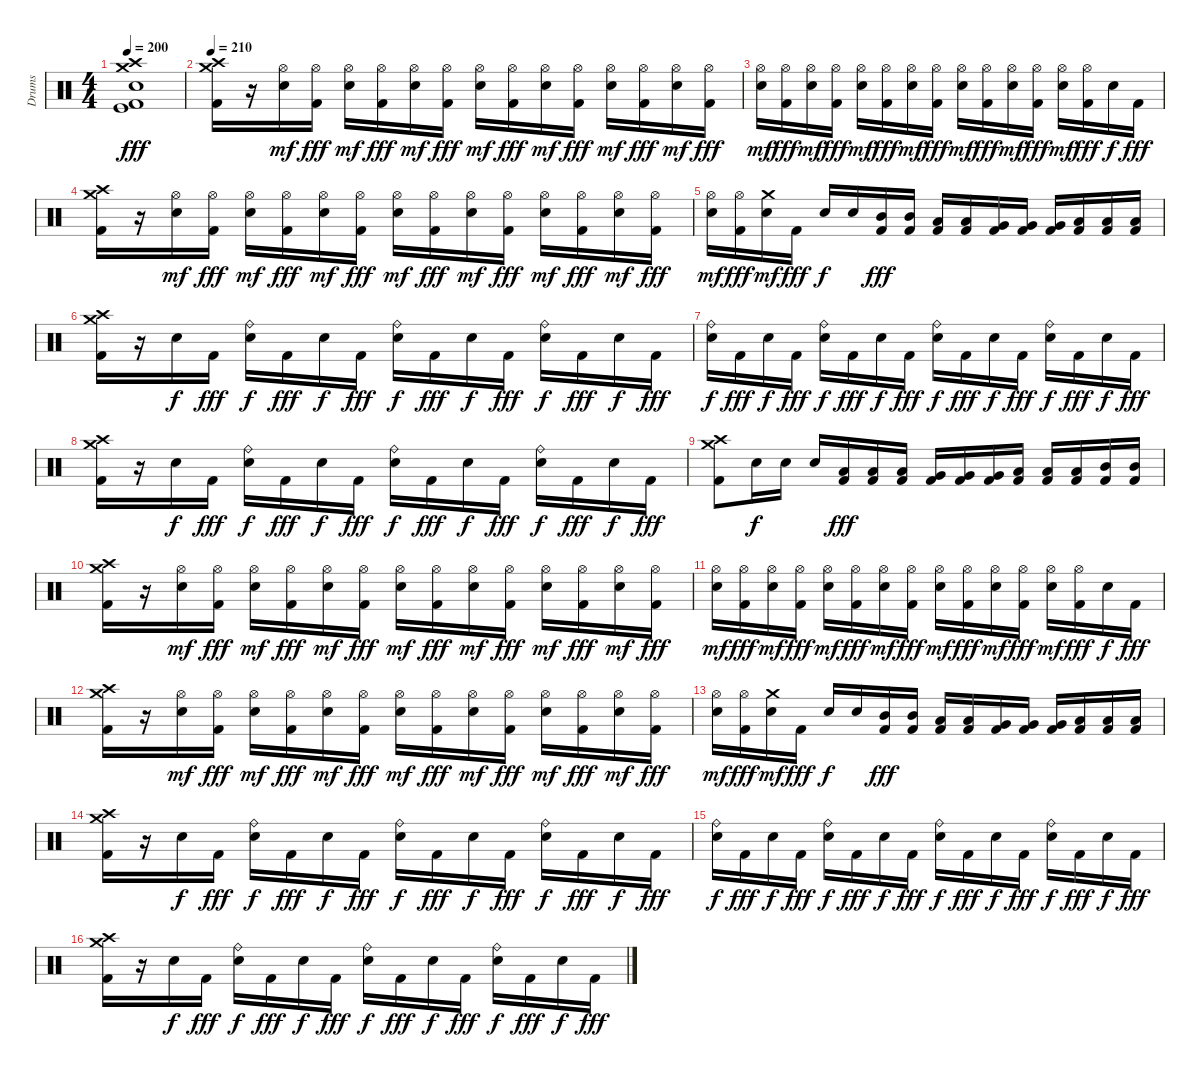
\track ("Drums" "Drums") {instrument percussion}
\staff {score}
\articulation defaults
\ts (4 4)
\tempo 200
\clef neutral
\ks c
("Crash medium (hit)" "Crash high (hit)" "Electric Snare (hit)" "Kick (hit)" "Kick (hit) 2").1{dy fff} |
\tempo 210
("Crash medium (hit)" "Crash high (hit)" "Kick (hit) 2").16 r.16 ("Hi-Hat (open)" "Electric Snare (hit)").16{dy mf} ("Hi-Hat (open)" "Kick (hit) 2").16{dy fff} ("Hi-Hat (open)" "Electric Snare (hit)").16{dy mf} ("Hi-Hat (open)" "Kick (hit) 2").16{dy fff} ("Hi-Hat (open)" "Electric Snare (hit)").16{dy mf} ("Hi-Hat (open)" "Kick (hit) 2").16{dy fff} ("Hi-Hat (open)" "Electric Snare (hit)").16{dy mf} ("Hi-Hat (open)" "Kick (hit) 2").16{dy fff} ("Hi-Hat (open)" "Electric Snare (hit)").16{dy mf} ("Hi-Hat (open)" "Kick (hit) 2").16{dy fff} ("Hi-Hat (open)" "Electric Snare (hit)").16{dy mf} ("Hi-Hat (open)" "Kick (hit) 2").16{dy fff} ("Hi-Hat (open)" "Electric Snare (hit)").16{dy mf} ("Hi-Hat (open)" "Kick (hit) 2").16{dy fff} |
("Hi-Hat (open)" "Electric Snare (hit)").16{dy mf} ("Hi-Hat (open)" "Kick (hit) 2").16{dy fff} ("Hi-Hat (open)" "Electric Snare (hit)").16{dy mf} ("Hi-Hat (open)" "Kick (hit) 2").16{dy fff} ("Hi-Hat (open)" "Electric Snare (hit)").16{dy mf} ("Hi-Hat (open)" "Kick (hit) 2").16{dy fff} ("Hi-Hat (open)" "Electric Snare (hit)").16{dy mf} ("Hi-Hat (open)" "Kick (hit) 2").16{dy fff} ("Hi-Hat (open)" "Electric Snare (hit)").16{dy mf} ("Hi-Hat (open)" "Kick (hit) 2").16{dy fff} ("Hi-Hat (open)" "Electric Snare (hit)").16{dy mf} ("Hi-Hat (open)" "Kick (hit) 2").16{dy fff} ("Hi-Hat (open)" "Electric Snare (hit)").16{dy mf} ("Hi-Hat (open)" "Kick (hit) 2").16{dy fff} "Electric Snare (hit)".16{dy f} "Kick (hit) 2".16{dy fff} |
("Crash medium (hit)" "Crash high (hit)" "Kick (hit) 2").16 r.16 ("Hi-Hat (open)" "Electric Snare (hit)").16{dy mf} ("Hi-Hat (open)" "Kick (hit) 2").16{dy fff} ("Hi-Hat (open)" "Electric Snare (hit)").16{dy mf} ("Hi-Hat (open)" "Kick (hit) 2").16{dy fff} ("Hi-Hat (open)" "Electric Snare (hit)").16{dy mf} ("Hi-Hat (open)" "Kick (hit) 2").16{dy fff} ("Hi-Hat (open)" "Electric Snare (hit)").16{dy mf} ("Hi-Hat (open)" "Kick (hit) 2").16{dy fff} ("Hi-Hat (open)" "Electric Snare (hit)").16{dy mf} ("Hi-Hat (open)" "Kick (hit) 2").16{dy fff} ("Hi-Hat (open)" "Electric Snare (hit)").16{dy mf} ("Hi-Hat (open)" "Kick (hit) 2").16{dy fff} ("Hi-Hat (open)" "Electric Snare (hit)").16{dy mf} ("Hi-Hat (open)" "Kick (hit) 2").16{dy fff} |
("Hi-Hat (open)" "Electric Snare (hit)").16{dy mf} ("Hi-Hat (open)" "Kick (hit) 2").16{dy fff} ("Crash medium (hit)" "Electric Snare (hit)").16{dy mf} "Kick (hit) 2".16{dy fff} "Electric Snare (hit)".16{dy f} "Electric Snare (hit)".16 ("Mid Tom (hit)" "Kick (hit) 2").16{dy fff} ("Mid Tom (hit)" "Kick (hit) 2").16 ("Low Tom (hit)" "Kick (hit) 2").16 ("Low Tom (hit)" "Kick (hit) 2").16 ("Very Low Tom (hit)" "Kick (hit) 2").16 ("Very Low Tom (hit)" "Kick (hit) 2").16 ("Very Low Tom (hit)" "Kick (hit) 2").16 ("Low Floor Tom (hit)" "Kick (hit) 2").16 ("Low Floor Tom (hit)" "Kick (hit) 2").16 ("Low Floor Tom (hit)" "Kick (hit) 2").16 |
("Crash medium (hit)" "Crash high (hit)" "Kick (hit) 2").16 r.16 "Electric Snare (hit)".16{dy f} "Kick (hit) 2".16{dy fff} ("Ride (bell)" "Electric Snare (hit)").16{dy f} "Kick (hit) 2".16{dy fff} "Electric Snare (hit)".16{dy f} "Kick (hit) 2".16{dy fff} ("Ride (bell)" "Electric Snare (hit)").16{dy f} "Kick (hit) 2".16{dy fff} "Electric Snare (hit)".16{dy f} "Kick (hit) 2".16{dy fff} ("Ride (bell)" "Electric Snare (hit)").16{dy f} "Kick (hit) 2".16{dy fff} "Electric Snare (hit)".16{dy f} "Kick (hit) 2".16{dy fff} |
("Ride (bell)" "Electric Snare (hit)").16{dy f} "Kick (hit) 2".16{dy fff} "Electric Snare (hit)".16{dy f} "Kick (hit) 2".16{dy fff} ("Ride (bell)" "Electric Snare (hit)").16{dy f} "Kick (hit) 2".16{dy fff} "Electric Snare (hit)".16{dy f} "Kick (hit) 2".16{dy fff} ("Ride (bell)" "Electric Snare (hit)").16{dy f} "Kick (hit) 2".16{dy fff} "Electric Snare (hit)".16{dy f} "Kick (hit) 2".16{dy fff} ("Ride (bell)" "Electric Snare (hit)").16{dy f} "Kick (hit) 2".16{dy fff} "Electric Snare (hit)".16{dy f} "Kick (hit) 2".16{dy fff} |
("Crash medium (hit)" "Crash high (hit)" "Kick (hit) 2").16 r.16 "Electric Snare (hit)".16{dy f} "Kick (hit) 2".16{dy fff} ("Ride (bell)" "Electric Snare (hit)").16{dy f} "Kick (hit) 2".16{dy fff} "Electric Snare (hit)".16{dy f} "Kick (hit) 2".16{dy fff} ("Ride (bell)" "Electric Snare (hit)").16{dy f} "Kick (hit) 2".16{dy fff} "Electric Snare (hit)".16{dy f} "Kick (hit) 2".16{dy fff} ("Ride (bell)" "Electric Snare (hit)").16{dy f} "Kick (hit) 2".16{dy fff} "Electric Snare (hit)".16{dy f} "Kick (hit) 2".16{dy fff} |
("Crash medium (hit)" "Crash high (hit)" "Kick (hit) 2").8 "Electric Snare (hit)".16{dy f} "Electric Snare (hit)".16 "Electric Snare (hit)".16 ("Low Floor Tom (hit)" "Kick (hit) 2").16{dy fff} ("Low Floor Tom (hit)" "Kick (hit) 2").16 ("Low Floor Tom (hit)" "Kick (hit) 2").16 ("Very Low Tom (hit)" "Kick (hit) 2").16 ("Very Low Tom (hit)" "Kick (hit) 2").16 ("Very Low Tom (hit)" "Kick (hit) 2").16 ("Low Tom (hit)" "Kick (hit) 2").16 ("Low Tom (hit)" "Kick (hit) 2").16 ("Low Tom (hit)" "Kick (hit) 2").16 ("Mid Tom (hit)" "Kick (hit) 2").16 ("Mid Tom (hit)" "Kick (hit) 2").16 |
("Crash medium (hit)" "Crash high (hit)" "Kick (hit) 2").16 r.16 ("Hi-Hat (open)" "Electric Snare (hit)").16{dy mf} ("Hi-Hat (open)" "Kick (hit) 2").16{dy fff} ("Hi-Hat (open)" "Electric Snare (hit)").16{dy mf} ("Hi-Hat (open)" "Kick (hit) 2").16{dy fff} ("Hi-Hat (open)" "Electric Snare (hit)").16{dy mf} ("Hi-Hat (open)" "Kick (hit) 2").16{dy fff} ("Hi-Hat (open)" "Electric Snare (hit)").16{dy mf} ("Hi-Hat (open)" "Kick (hit) 2").16{dy fff} ("Hi-Hat (open)" "Electric Snare (hit)").16{dy mf} ("Hi-Hat (open)" "Kick (hit) 2").16{dy fff} ("Hi-Hat (open)" "Electric Snare (hit)").16{dy mf} ("Hi-Hat (open)" "Kick (hit) 2").16{dy fff} ("Hi-Hat (open)" "Electric Snare (hit)").16{dy mf} ("Hi-Hat (open)" "Kick (hit) 2").16{dy fff} |
("Hi-Hat (open)" "Electric Snare (hit)").16{dy mf} ("Hi-Hat (open)" "Kick (hit) 2").16{dy fff} ("Hi-Hat (open)" "Electric Snare (hit)").16{dy mf} ("Hi-Hat (open)" "Kick (hit) 2").16{dy fff} ("Hi-Hat (open)" "Electric Snare (hit)").16{dy mf} ("Hi-Hat (open)" "Kick (hit) 2").16{dy fff} ("Hi-Hat (open)" "Electric Snare (hit)").16{dy mf} ("Hi-Hat (open)" "Kick (hit) 2").16{dy fff} ("Hi-Hat (open)" "Electric Snare (hit)").16{dy mf} ("Hi-Hat (open)" "Kick (hit) 2").16{dy fff} ("Hi-Hat (open)" "Electric Snare (hit)").16{dy mf} ("Hi-Hat (open)" "Kick (hit) 2").16{dy fff} ("Hi-Hat (open)" "Electric Snare (hit)").16{dy mf} ("Hi-Hat (open)" "Kick (hit) 2").16{dy fff} "Electric Snare (hit)".16{dy f} "Kick (hit) 2".16{dy fff} |
("Crash medium (hit)" "Crash high (hit)" "Kick (hit) 2").16 r.16 ("Hi-Hat (open)" "Electric Snare (hit)").16{dy mf} ("Hi-Hat (open)" "Kick (hit) 2").16{dy fff} ("Hi-Hat (open)" "Electric Snare (hit)").16{dy mf} ("Hi-Hat (open)" "Kick (hit) 2").16{dy fff} ("Hi-Hat (open)" "Electric Snare (hit)").16{dy mf} ("Hi-Hat (open)" "Kick (hit) 2").16{dy fff} ("Hi-Hat (open)" "Electric Snare (hit)").16{dy mf} ("Hi-Hat (open)" "Kick (hit) 2").16{dy fff} ("Hi-Hat (open)" "Electric Snare (hit)").16{dy mf} ("Hi-Hat (open)" "Kick (hit) 2").16{dy fff} ("Hi-Hat (open)" "Electric Snare (hit)").16{dy mf} ("Hi-Hat (open)" "Kick (hit) 2").16{dy fff} ("Hi-Hat (open)" "Electric Snare (hit)").16{dy mf} ("Hi-Hat (open)" "Kick (hit) 2").16{dy fff} |
("Hi-Hat (open)" "Electric Snare (hit)").16{dy mf} ("Hi-Hat (open)" "Kick (hit) 2").16{dy fff} ("Crash medium (hit)" "Electric Snare (hit)").16{dy mf} "Kick (hit) 2".16{dy fff} "Electric Snare (hit)".16{dy f} "Electric Snare (hit)".16 ("Mid Tom (hit)" "Kick (hit) 2").16{dy fff} ("Mid Tom (hit)" "Kick (hit) 2").16 ("Low Tom (hit)" "Kick (hit) 2").16 ("Low Tom (hit)" "Kick (hit) 2").16 ("Very Low Tom (hit)" "Kick (hit) 2").16 ("Very Low Tom (hit)" "Kick (hit) 2").16 ("Very Low Tom (hit)" "Kick (hit) 2").16 ("Low Floor Tom (hit)" "Kick (hit) 2").16 ("Low Floor Tom (hit)" "Kick (hit) 2").16 ("Low Floor Tom (hit)" "Kick (hit) 2").16 |
("Crash medium (hit)" "Crash high (hit)" "Kick (hit) 2").16 r.16 "Electric Snare (hit)".16{dy f} "Kick (hit) 2".16{dy fff} ("Ride (bell)" "Electric Snare (hit)").16{dy f} "Kick (hit) 2".16{dy fff} "Electric Snare (hit)".16{dy f} "Kick (hit) 2".16{dy fff} ("Ride (bell)" "Electric Snare (hit)").16{dy f} "Kick (hit) 2".16{dy fff} "Electric Snare (hit)".16{dy f} "Kick (hit) 2".16{dy fff} ("Ride (bell)" "Electric Snare (hit)").16{dy f} "Kick (hit) 2".16{dy fff} "Electric Snare (hit)".16{dy f} "Kick (hit) 2".16{dy fff} |
("Ride (bell)" "Electric Snare (hit)").16{dy f} "Kick (hit) 2".16{dy fff} "Electric Snare (hit)".16{dy f} "Kick (hit) 2".16{dy fff} ("Ride (bell)" "Electric Snare (hit)").16{dy f} "Kick (hit) 2".16{dy fff} "Electric Snare (hit)".16{dy f} "Kick (hit) 2".16{dy fff} ("Ride (bell)" "Electric Snare (hit)").16{dy f} "Kick (hit) 2".16{dy fff} "Electric Snare (hit)".16{dy f} "Kick (hit) 2".16{dy fff} ("Ride (bell)" "Electric Snare (hit)").16{dy f} "Kick (hit) 2".16{dy fff} "Electric Snare (hit)".16{dy f} "Kick (hit) 2".16{dy fff} |
("Crash medium (hit)" "Crash high (hit)" "Kick (hit) 2").16 r.16 "Electric Snare (hit)".16{dy f} "Kick (hit) 2".16{dy fff} ("Ride (bell)" "Electric Snare (hit)").16{dy f} "Kick (hit) 2".16{dy fff} "Electric Snare (hit)".16{dy f} "Kick (hit) 2".16{dy fff} ("Ride (bell)" "Electric Snare (hit)").16{dy f} "Kick (hit) 2".16{dy fff} "Electric Snare (hit)".16{dy f} "Kick (hit) 2".16{dy fff} ("Ride (bell)" "Electric Snare (hit)").16{dy f} "Kick (hit) 2".16{dy fff} "Electric Snare (hit)".16{dy f} "Kick (hit) 2".16{dy fff}
